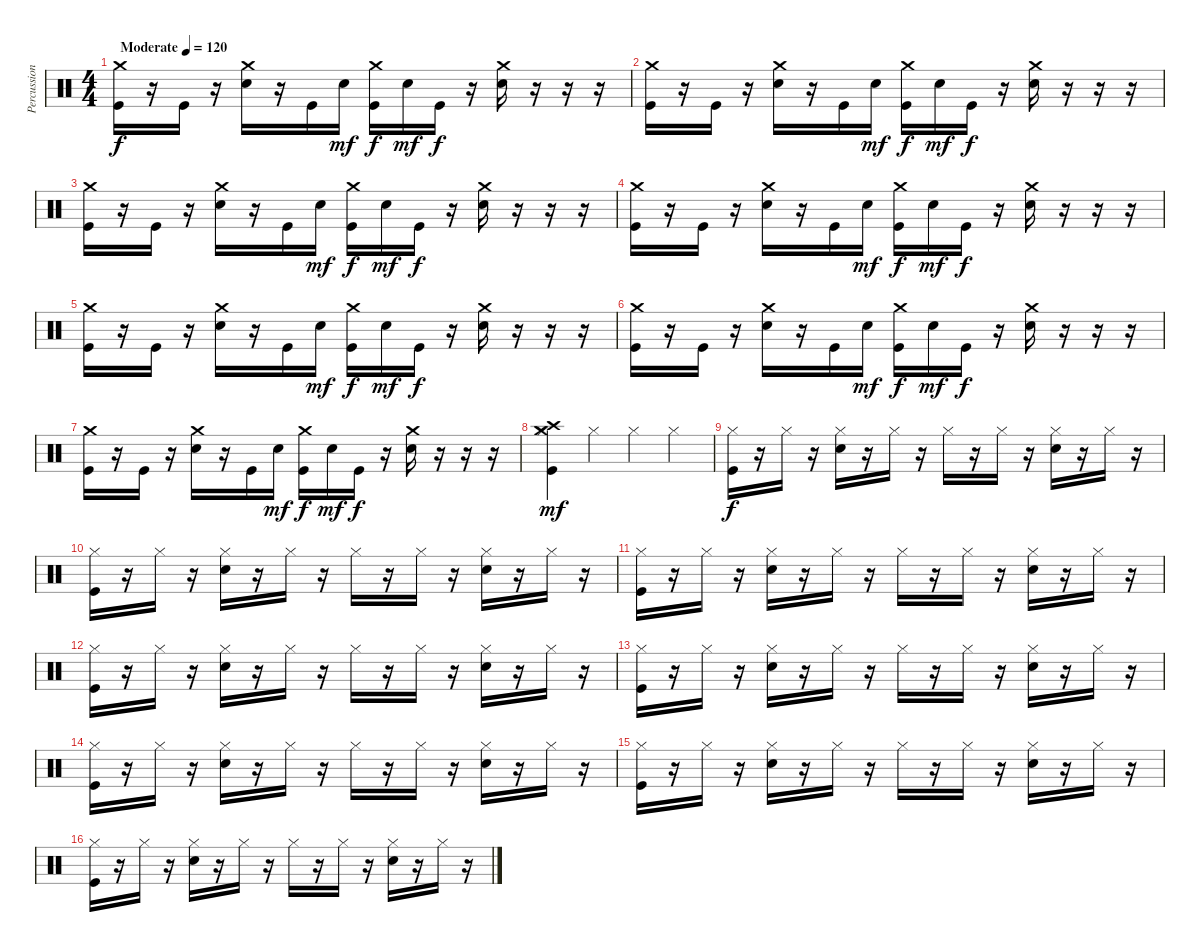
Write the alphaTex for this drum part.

\track ("Percussions" "Percussion") {instrument percussion}
\staff {score}
\articulation defaults
\ts (4 4)
\tempo (120 "Moderate")
\clef neutral
\ks c
("Kick (hit)" "Crash medium (hit)").16{dy f} r.16 "Kick (hit)".16 r.16 ("Electric Snare (hit)" "Crash medium (hit)").16 r.16 "Kick (hit)".16 "Electric Snare (hit)".16{dy mf} ("Kick (hit)" "Crash medium (hit)").16{dy f} "Electric Snare (hit)".16{dy mf} "Kick (hit)".16{dy f} r.16 ("Electric Snare (hit)" "Crash medium (hit)").16 r.16 r.16 r.16 |
("Kick (hit)" "Crash medium (hit)").16 r.16 "Kick (hit)".16 r.16 ("Electric Snare (hit)" "Crash medium (hit)").16 r.16 "Kick (hit)".16 "Electric Snare (hit)".16{dy mf} ("Kick (hit)" "Crash medium (hit)").16{dy f} "Electric Snare (hit)".16{dy mf} "Kick (hit)".16{dy f} r.16 ("Electric Snare (hit)" "Crash medium (hit)").16 r.16 r.16 r.16 |
("Kick (hit)" "Crash medium (hit)").16 r.16 "Kick (hit)".16 r.16 ("Electric Snare (hit)" "Crash medium (hit)").16 r.16 "Kick (hit)".16 "Electric Snare (hit)".16{dy mf} ("Kick (hit)" "Crash medium (hit)").16{dy f} "Electric Snare (hit)".16{dy mf} "Kick (hit)".16{dy f} r.16 ("Electric Snare (hit)" "Crash medium (hit)").16 r.16 r.16 r.16 |
("Kick (hit)" "Crash medium (hit)").16 r.16 "Kick (hit)".16 r.16 ("Electric Snare (hit)" "Crash medium (hit)").16 r.16 "Kick (hit)".16 "Electric Snare (hit)".16{dy mf} ("Kick (hit)" "Crash medium (hit)").16{dy f} "Electric Snare (hit)".16{dy mf} "Kick (hit)".16{dy f} r.16 ("Electric Snare (hit)" "Crash medium (hit)").16 r.16 r.16 r.16 |
("Kick (hit)" "Crash medium (hit)").16 r.16 "Kick (hit)".16 r.16 ("Electric Snare (hit)" "Crash medium (hit)").16 r.16 "Kick (hit)".16 "Electric Snare (hit)".16{dy mf} ("Kick (hit)" "Crash medium (hit)").16{dy f} "Electric Snare (hit)".16{dy mf} "Kick (hit)".16{dy f} r.16 ("Electric Snare (hit)" "Crash medium (hit)").16 r.16 r.16 r.16 |
("Kick (hit)" "Crash medium (hit)").16 r.16 "Kick (hit)".16 r.16 ("Electric Snare (hit)" "Crash medium (hit)").16 r.16 "Kick (hit)".16 "Electric Snare (hit)".16{dy mf} ("Kick (hit)" "Crash medium (hit)").16{dy f} "Electric Snare (hit)".16{dy mf} "Kick (hit)".16{dy f} r.16 ("Electric Snare (hit)" "Crash medium (hit)").16 r.16 r.16 r.16 |
("Kick (hit)" "Crash medium (hit)").16 r.16 "Kick (hit)".16 r.16 ("Electric Snare (hit)" "Crash medium (hit)").16 r.16 "Kick (hit)".16 "Electric Snare (hit)".16{dy mf} ("Kick (hit)" "Crash medium (hit)").16{dy f} "Electric Snare (hit)".16{dy mf} "Kick (hit)".16{dy f} r.16 ("Electric Snare (hit)" "Crash medium (hit)").16 r.16 r.16 r.16 |
("Hi-Hat (closed)" "Kick (hit)" "Crash high (hit)" "Crash medium (hit)").4{dy mf} "Hi-Hat (closed)".4 "Hi-Hat (closed)".4 "Hi-Hat (closed)".4 |
("Kick (hit)" "Hi-Hat (closed)").16{dy f} r.16 "Hi-Hat (closed)".16 r.16 ("Electric Snare (hit)" "Hi-Hat (closed)").16 r.16 "Hi-Hat (closed)".16 r.16 "Hi-Hat (closed)".16 r.16 "Hi-Hat (closed)".16 r.16 ("Electric Snare (hit)" "Hi-Hat (closed)").16 r.16 "Hi-Hat (closed)".16 r.16 |
("Kick (hit)" "Hi-Hat (closed)").16 r.16 "Hi-Hat (closed)".16 r.16 ("Electric Snare (hit)" "Hi-Hat (closed)").16 r.16 "Hi-Hat (closed)".16 r.16 "Hi-Hat (closed)".16 r.16 "Hi-Hat (closed)".16 r.16 ("Electric Snare (hit)" "Hi-Hat (closed)").16 r.16 "Hi-Hat (closed)".16 r.16 |
("Kick (hit)" "Hi-Hat (closed)").16 r.16 "Hi-Hat (closed)".16 r.16 ("Electric Snare (hit)" "Hi-Hat (closed)").16 r.16 "Hi-Hat (closed)".16 r.16 "Hi-Hat (closed)".16 r.16 "Hi-Hat (closed)".16 r.16 ("Electric Snare (hit)" "Hi-Hat (closed)").16 r.16 "Hi-Hat (closed)".16 r.16 |
("Kick (hit)" "Hi-Hat (closed)").16 r.16 "Hi-Hat (closed)".16 r.16 ("Electric Snare (hit)" "Hi-Hat (closed)").16 r.16 "Hi-Hat (closed)".16 r.16 "Hi-Hat (closed)".16 r.16 "Hi-Hat (closed)".16 r.16 ("Electric Snare (hit)" "Hi-Hat (closed)").16 r.16 "Hi-Hat (closed)".16 r.16 |
("Kick (hit)" "Hi-Hat (closed)").16 r.16 "Hi-Hat (closed)".16 r.16 ("Electric Snare (hit)" "Hi-Hat (closed)").16 r.16 "Hi-Hat (closed)".16 r.16 "Hi-Hat (closed)".16 r.16 "Hi-Hat (closed)".16 r.16 ("Electric Snare (hit)" "Hi-Hat (closed)").16 r.16 "Hi-Hat (closed)".16 r.16 |
("Kick (hit)" "Hi-Hat (closed)").16 r.16 "Hi-Hat (closed)".16 r.16 ("Electric Snare (hit)" "Hi-Hat (closed)").16 r.16 "Hi-Hat (closed)".16 r.16 "Hi-Hat (closed)".16 r.16 "Hi-Hat (closed)".16 r.16 ("Electric Snare (hit)" "Hi-Hat (closed)").16 r.16 "Hi-Hat (closed)".16 r.16 |
("Kick (hit)" "Hi-Hat (closed)").16 r.16 "Hi-Hat (closed)".16 r.16 ("Electric Snare (hit)" "Hi-Hat (closed)").16 r.16 "Hi-Hat (closed)".16 r.16 "Hi-Hat (closed)".16 r.16 "Hi-Hat (closed)".16 r.16 ("Electric Snare (hit)" "Hi-Hat (closed)").16 r.16 "Hi-Hat (closed)".16 r.16 |
("Kick (hit)" "Hi-Hat (closed)").16 r.16 "Hi-Hat (closed)".16 r.16 ("Electric Snare (hit)" "Hi-Hat (closed)").16 r.16 "Hi-Hat (closed)".16 r.16 "Hi-Hat (closed)".16 r.16 "Hi-Hat (closed)".16 r.16 ("Electric Snare (hit)" "Hi-Hat (closed)").16 r.16 "Hi-Hat (closed)".16 r.16
